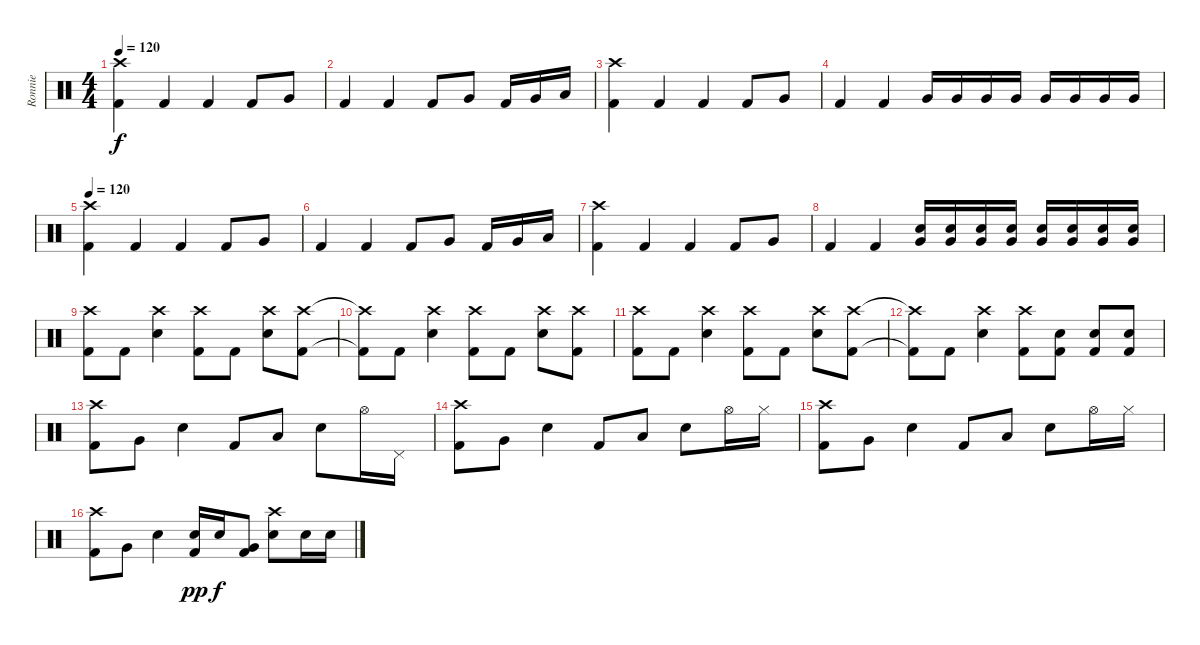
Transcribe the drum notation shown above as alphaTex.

\track ("Ronnie" "Ronnie") {instrument percussion}
\staff {score}
\articulation defaults
\ts (4 4)
\tempo 120
\clef neutral
\ks c
("Kick (hit) 2" "Crash high (hit)").4{dy f} "Kick (hit) 2".4 "Kick (hit) 2".4 "Kick (hit) 2".8 "Very Low Tom (hit)".8 |
"Kick (hit) 2".4 "Kick (hit) 2".4 "Kick (hit) 2".8 "Very Low Tom (hit)".8 "Kick (hit) 2".16 "Very Low Tom (hit)".16 "Low Floor Tom (hit)".16 |
("Kick (hit) 2" "Crash high (hit)").4 "Kick (hit) 2".4 "Kick (hit) 2".4 "Kick (hit) 2".8 "Very Low Tom (hit)".8 |
"Kick (hit) 2".4 "Kick (hit) 2".4 "Very Low Tom (hit)".16 "Very Low Tom (hit)".16 "Very Low Tom (hit)".16 "Very Low Tom (hit)".16 "Very Low Tom (hit)".16 "Very Low Tom (hit)".16 "Very Low Tom (hit)".16 "Very Low Tom (hit)".16 |
\tempo 120
("Kick (hit) 2" "Crash high (hit)").4 "Kick (hit) 2".4 "Kick (hit) 2".4 "Kick (hit) 2".8 "Very Low Tom (hit)".8 |
"Kick (hit) 2".4 "Kick (hit) 2".4 "Kick (hit) 2".8 "Very Low Tom (hit)".8 "Kick (hit) 2".16 "Very Low Tom (hit)".16 "Low Floor Tom (hit)".16 |
("Kick (hit) 2" "Crash high (hit)").4 "Kick (hit) 2".4 "Kick (hit) 2".4 "Kick (hit) 2".8 "Very Low Tom (hit)".8 |
"Kick (hit) 2".4 "Kick (hit) 2".4 ("Very Low Tom (hit)" "Snare (hit) 2").16 ("Very Low Tom (hit)" "Snare (hit) 2").16 ("Very Low Tom (hit)" "Snare (hit) 2").16 ("Very Low Tom (hit)" "Snare (hit) 2").16 ("Very Low Tom (hit)" "Snare (hit) 2").16 ("Very Low Tom (hit)" "Snare (hit) 2").16 ("Very Low Tom (hit)" "Snare (hit) 2").16 ("Very Low Tom (hit)" "Snare (hit) 2").16 |
("Crash high (hit)" "Kick (hit) 2").8 "Kick (hit) 2".8 ("Crash high (hit)" "Snare (hit) 2").4 ("Crash high (hit)" "Kick (hit) 2").8 "Kick (hit) 2".8 ("Crash high (hit)" "Snare (hit) 2").8 ("Crash high (hit)" "Kick (hit) 2").8 |
("Crash high (hit)"{t} "Kick (hit) 2"{t}).8 "Kick (hit) 2".8 ("Crash high (hit)" "Snare (hit) 2").4 ("Crash high (hit)" "Kick (hit) 2").8 "Kick (hit) 2".8 ("Crash high (hit)" "Snare (hit) 2").8 ("Crash high (hit)" "Kick (hit) 2").8 |
("Crash high (hit)" "Kick (hit) 2").8 "Kick (hit) 2".8 ("Crash high (hit)" "Snare (hit) 2").4 ("Crash high (hit)" "Kick (hit) 2").8 "Kick (hit) 2".8 ("Crash high (hit)" "Snare (hit) 2").8 ("Crash high (hit)" "Kick (hit) 2").8 |
("Crash high (hit)"{t} "Kick (hit) 2"{t}).8 "Kick (hit) 2".8 ("Crash high (hit)" "Snare (hit) 2").4 ("Crash high (hit)" "Kick (hit) 2").8 ("Kick (hit) 2" "Snare (hit) 2").8 ("Kick (hit) 2" "Snare (hit) 2").8 ("Kick (hit) 2" "Snare (hit) 2").8 |
("Crash high (hit)" "Kick (hit) 2").8 "Very Low Tom (hit)".8 "Snare (hit) 2".4 "Kick (hit) 2".8 "Low Floor Tom (hit)".8 "Snare (hit) 2".8 "Hi-Hat (open)".16 "Pedal Hi-Hat (hit)".16 |
("Crash high (hit)" "Kick (hit) 2").8 "Very Low Tom (hit)".8 "Snare (hit) 2".4 "Kick (hit) 2".8 "Low Floor Tom (hit)".8 "Snare (hit) 2".8 "Hi-Hat (open)".16 "Hi-Hat (closed)".16 |
("Crash high (hit)" "Kick (hit) 2").8 "Very Low Tom (hit)".8 "Snare (hit) 2".4 "Kick (hit) 2".8 "Low Floor Tom (hit)".8 "Snare (hit) 2".8 "Hi-Hat (open)".16 "Hi-Hat (closed)".16 |
("Crash high (hit)" "Kick (hit) 2").8 "Very Low Tom (hit)".8 "Snare (hit) 2".4 ("Snare (hit) 2" "Kick (hit) 2").16{dy pp} "Snare (hit) 2".16{dy f} ("Very Low Tom (hit)" "Kick (hit) 2").8 ("Crash high (hit)" "Snare (hit) 2").8 "Snare (hit) 2".16 "Snare (hit) 2".16
